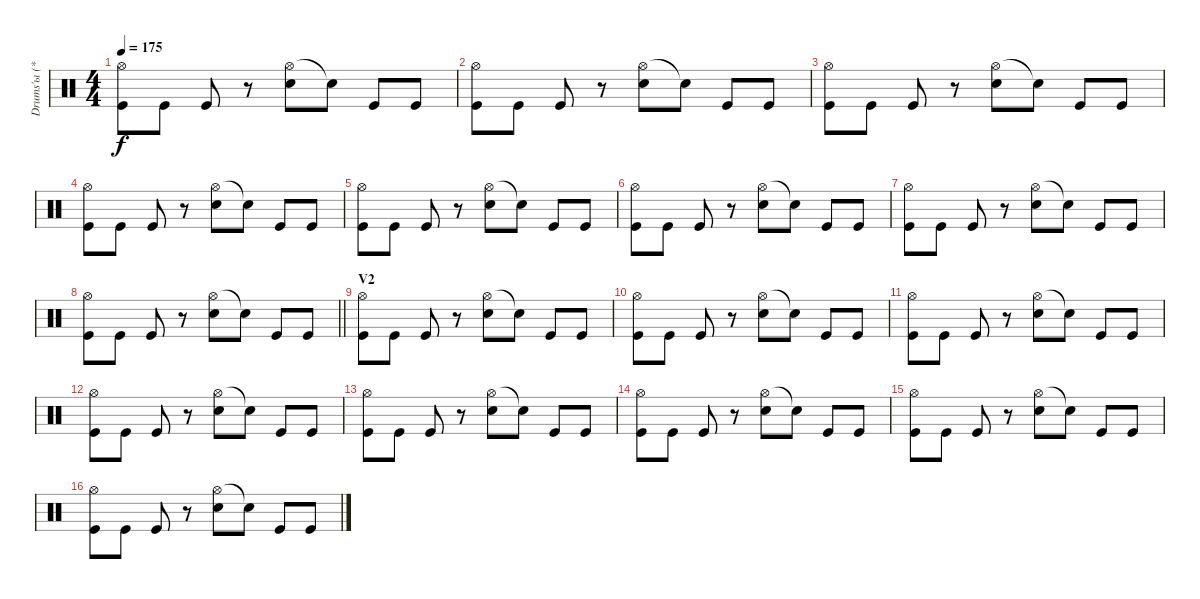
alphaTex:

\track ("Drums'ы (***)" "Drums'ы (*") {instrument percussion}
\staff {score}
\articulation defaults
\ts (4 4)
\tempo 175
\clef neutral
\ks c
("Hi-Hat (open)" "Kick (hit)").8{dy f} "Kick (hit)".8 "Kick (hit)".8 r.8 ("Hi-Hat (open)" "Electric Snare (hit)").8 "Snare (hit)"{t}.8 "Kick (hit)".8 "Kick (hit)".8 |
("Hi-Hat (open)" "Kick (hit)").8 "Kick (hit)".8 "Kick (hit)".8 r.8 ("Hi-Hat (open)" "Electric Snare (hit)").8 "Snare (hit)"{t}.8 "Kick (hit)".8 "Kick (hit)".8 |
("Hi-Hat (open)" "Kick (hit)").8 "Kick (hit)".8 "Kick (hit)".8 r.8 ("Hi-Hat (open)" "Electric Snare (hit)").8 "Snare (hit)"{t}.8 "Kick (hit)".8 "Kick (hit)".8 |
("Hi-Hat (open)" "Kick (hit)").8 "Kick (hit)".8 "Kick (hit)".8 r.8 ("Hi-Hat (open)" "Electric Snare (hit)").8 "Snare (hit)"{t}.8 "Kick (hit)".8 "Kick (hit)".8 |
("Hi-Hat (open)" "Kick (hit)").8 "Kick (hit)".8 "Kick (hit)".8 r.8 ("Hi-Hat (open)" "Electric Snare (hit)").8 "Snare (hit)"{t}.8 "Kick (hit)".8 "Kick (hit)".8 |
("Hi-Hat (open)" "Kick (hit)").8 "Kick (hit)".8 "Kick (hit)".8 r.8 ("Hi-Hat (open)" "Electric Snare (hit)").8 "Snare (hit)"{t}.8 "Kick (hit)".8 "Kick (hit)".8 |
("Hi-Hat (open)" "Kick (hit)").8 "Kick (hit)".8 "Kick (hit)".8 r.8 ("Hi-Hat (open)" "Electric Snare (hit)").8 "Snare (hit)"{t}.8 "Kick (hit)".8 "Kick (hit)".8 |
\barLineRight lightlight
("Hi-Hat (open)" "Kick (hit)").8 "Kick (hit)".8 "Kick (hit)".8 r.8 ("Hi-Hat (open)" "Electric Snare (hit)").8 "Snare (hit)"{t}.8 "Kick (hit)".8 "Kick (hit)".8 |
\section ("" "V2")
("Hi-Hat (open)" "Kick (hit)").8 "Kick (hit)".8 "Kick (hit)".8 r.8 ("Hi-Hat (open)" "Electric Snare (hit)").8 "Snare (hit)"{t}.8 "Kick (hit)".8 "Kick (hit)".8 |
("Hi-Hat (open)" "Kick (hit)").8 "Kick (hit)".8 "Kick (hit)".8 r.8 ("Hi-Hat (open)" "Electric Snare (hit)").8 "Snare (hit)"{t}.8 "Kick (hit)".8 "Kick (hit)".8 |
("Hi-Hat (open)" "Kick (hit)").8 "Kick (hit)".8 "Kick (hit)".8 r.8 ("Hi-Hat (open)" "Electric Snare (hit)").8 "Snare (hit)"{t}.8 "Kick (hit)".8 "Kick (hit)".8 |
("Hi-Hat (open)" "Kick (hit)").8 "Kick (hit)".8 "Kick (hit)".8 r.8 ("Hi-Hat (open)" "Electric Snare (hit)").8 "Snare (hit)"{t}.8 "Kick (hit)".8 "Kick (hit)".8 |
("Hi-Hat (open)" "Kick (hit)").8 "Kick (hit)".8 "Kick (hit)".8 r.8 ("Hi-Hat (open)" "Electric Snare (hit)").8 "Snare (hit)"{t}.8 "Kick (hit)".8 "Kick (hit)".8 |
("Hi-Hat (open)" "Kick (hit)").8 "Kick (hit)".8 "Kick (hit)".8 r.8 ("Hi-Hat (open)" "Electric Snare (hit)").8 "Snare (hit)"{t}.8 "Kick (hit)".8 "Kick (hit)".8 |
("Hi-Hat (open)" "Kick (hit)").8 "Kick (hit)".8 "Kick (hit)".8 r.8 ("Hi-Hat (open)" "Electric Snare (hit)").8 "Snare (hit)"{t}.8 "Kick (hit)".8 "Kick (hit)".8 |
("Hi-Hat (open)" "Kick (hit)").8 "Kick (hit)".8 "Kick (hit)".8 r.8 ("Hi-Hat (open)" "Electric Snare (hit)").8 "Snare (hit)"{t}.8 "Kick (hit)".8 "Kick (hit)".8
